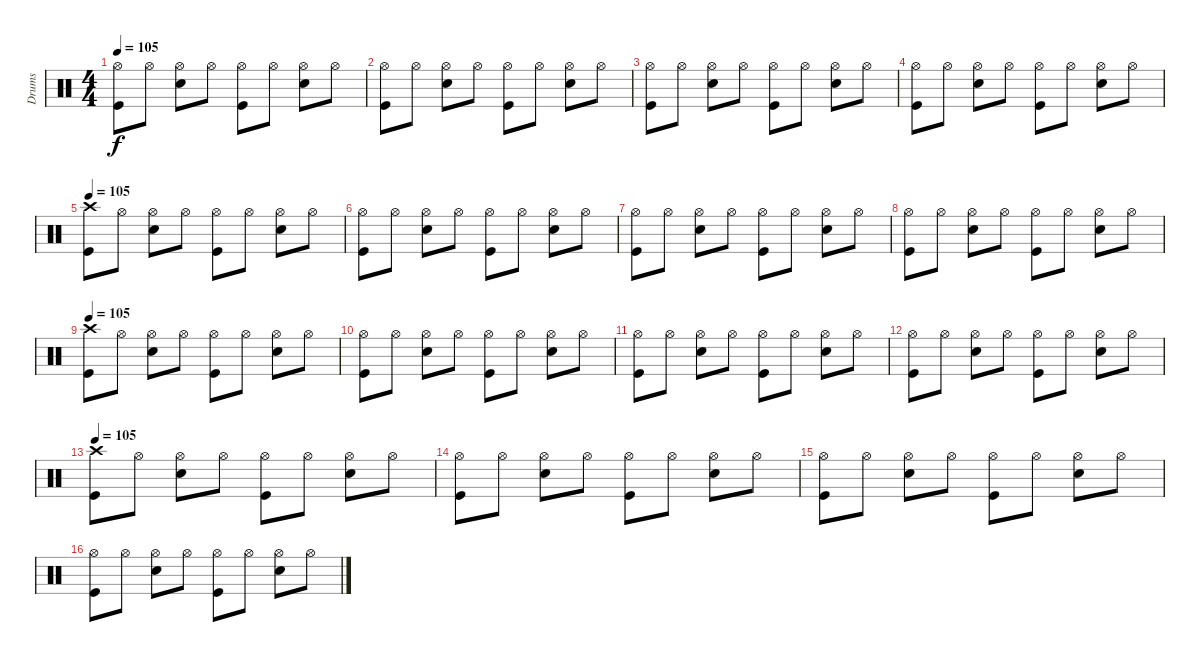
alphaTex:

\track ("Drums" "Drums") {instrument percussion}
\staff {score}
\articulation defaults
\ts (4 4)
\tempo 105
\clef neutral
\ks c
("Hi-Hat (open)" "Kick (hit)").8{dy f} "Hi-Hat (open)".8 ("Hi-Hat (open)" "Snare (hit) 2").8 "Hi-Hat (open)".8 ("Hi-Hat (open)" "Kick (hit)").8 "Hi-Hat (open)".8 ("Hi-Hat (open)" "Snare (hit) 2").8 "Hi-Hat (open)".8 |
("Hi-Hat (open)" "Kick (hit)").8 "Hi-Hat (open)".8 ("Hi-Hat (open)" "Snare (hit) 2").8 "Hi-Hat (open)".8 ("Hi-Hat (open)" "Kick (hit)").8 "Hi-Hat (open)".8 ("Hi-Hat (open)" "Snare (hit) 2").8 "Hi-Hat (open)".8 |
("Hi-Hat (open)" "Kick (hit)").8 "Hi-Hat (open)".8 ("Hi-Hat (open)" "Snare (hit) 2").8 "Hi-Hat (open)".8 ("Hi-Hat (open)" "Kick (hit)").8 "Hi-Hat (open)".8 ("Hi-Hat (open)" "Snare (hit) 2").8 "Hi-Hat (open)".8 |
("Hi-Hat (open)" "Kick (hit)").8 "Hi-Hat (open)".8 ("Hi-Hat (open)" "Snare (hit) 2").8 "Hi-Hat (open)".8 ("Hi-Hat (open)" "Kick (hit)").8 "Hi-Hat (open)".8 ("Hi-Hat (open)" "Snare (hit) 2").8 "Hi-Hat (open)".8 |
\tempo 105
("Crash high (hit)" "Kick (hit)").8 "Hi-Hat (open)".8 ("Hi-Hat (open)" "Snare (hit) 2").8 "Hi-Hat (open)".8 ("Hi-Hat (open)" "Kick (hit)").8 "Hi-Hat (open)".8 ("Hi-Hat (open)" "Snare (hit) 2").8 "Hi-Hat (open)".8 |
("Hi-Hat (open)" "Kick (hit)").8 "Hi-Hat (open)".8 ("Hi-Hat (open)" "Snare (hit) 2").8 "Hi-Hat (open)".8 ("Hi-Hat (open)" "Kick (hit)").8 "Hi-Hat (open)".8 ("Hi-Hat (open)" "Snare (hit) 2").8 "Hi-Hat (open)".8 |
("Hi-Hat (open)" "Kick (hit)").8 "Hi-Hat (open)".8 ("Hi-Hat (open)" "Snare (hit) 2").8 "Hi-Hat (open)".8 ("Hi-Hat (open)" "Kick (hit)").8 "Hi-Hat (open)".8 ("Hi-Hat (open)" "Snare (hit) 2").8 "Hi-Hat (open)".8 |
("Hi-Hat (open)" "Kick (hit)").8 "Hi-Hat (open)".8 ("Hi-Hat (open)" "Snare (hit) 2").8 "Hi-Hat (open)".8 ("Hi-Hat (open)" "Kick (hit)").8 "Hi-Hat (open)".8 ("Hi-Hat (open)" "Snare (hit) 2").8 "Hi-Hat (open)".8 |
\tempo 105
("Crash high (hit)" "Kick (hit)").8 "Hi-Hat (open)".8 ("Hi-Hat (open)" "Snare (hit) 2").8 "Hi-Hat (open)".8 ("Hi-Hat (open)" "Kick (hit)").8 "Hi-Hat (open)".8 ("Hi-Hat (open)" "Snare (hit) 2").8 "Hi-Hat (open)".8 |
("Hi-Hat (open)" "Kick (hit)").8 "Hi-Hat (open)".8 ("Hi-Hat (open)" "Snare (hit) 2").8 "Hi-Hat (open)".8 ("Hi-Hat (open)" "Kick (hit)").8 "Hi-Hat (open)".8 ("Hi-Hat (open)" "Snare (hit) 2").8 "Hi-Hat (open)".8 |
("Hi-Hat (open)" "Kick (hit)").8 "Hi-Hat (open)".8 ("Hi-Hat (open)" "Snare (hit) 2").8 "Hi-Hat (open)".8 ("Hi-Hat (open)" "Kick (hit)").8 "Hi-Hat (open)".8 ("Hi-Hat (open)" "Snare (hit) 2").8 "Hi-Hat (open)".8 |
("Hi-Hat (open)" "Kick (hit)").8 "Hi-Hat (open)".8 ("Hi-Hat (open)" "Snare (hit) 2").8 "Hi-Hat (open)".8 ("Hi-Hat (open)" "Kick (hit)").8 "Hi-Hat (open)".8 ("Hi-Hat (open)" "Snare (hit) 2").8 "Hi-Hat (open)".8 |
\tempo 105
("Crash high (hit)" "Kick (hit)").8 "Hi-Hat (open)".8 ("Hi-Hat (open)" "Snare (hit) 2").8 "Hi-Hat (open)".8 ("Hi-Hat (open)" "Kick (hit)").8 "Hi-Hat (open)".8 ("Hi-Hat (open)" "Snare (hit) 2").8 "Hi-Hat (open)".8 |
("Hi-Hat (open)" "Kick (hit)").8 "Hi-Hat (open)".8 ("Hi-Hat (open)" "Snare (hit) 2").8 "Hi-Hat (open)".8 ("Hi-Hat (open)" "Kick (hit)").8 "Hi-Hat (open)".8 ("Hi-Hat (open)" "Snare (hit) 2").8 "Hi-Hat (open)".8 |
("Hi-Hat (open)" "Kick (hit)").8 "Hi-Hat (open)".8 ("Hi-Hat (open)" "Snare (hit) 2").8 "Hi-Hat (open)".8 ("Hi-Hat (open)" "Kick (hit)").8 "Hi-Hat (open)".8 ("Hi-Hat (open)" "Snare (hit) 2").8 "Hi-Hat (open)".8 |
("Hi-Hat (open)" "Kick (hit)").8 "Hi-Hat (open)".8 ("Hi-Hat (open)" "Snare (hit) 2").8 "Hi-Hat (open)".8 ("Hi-Hat (open)" "Kick (hit)").8 "Hi-Hat (open)".8 ("Hi-Hat (open)" "Snare (hit) 2").8 "Hi-Hat (open)".8
